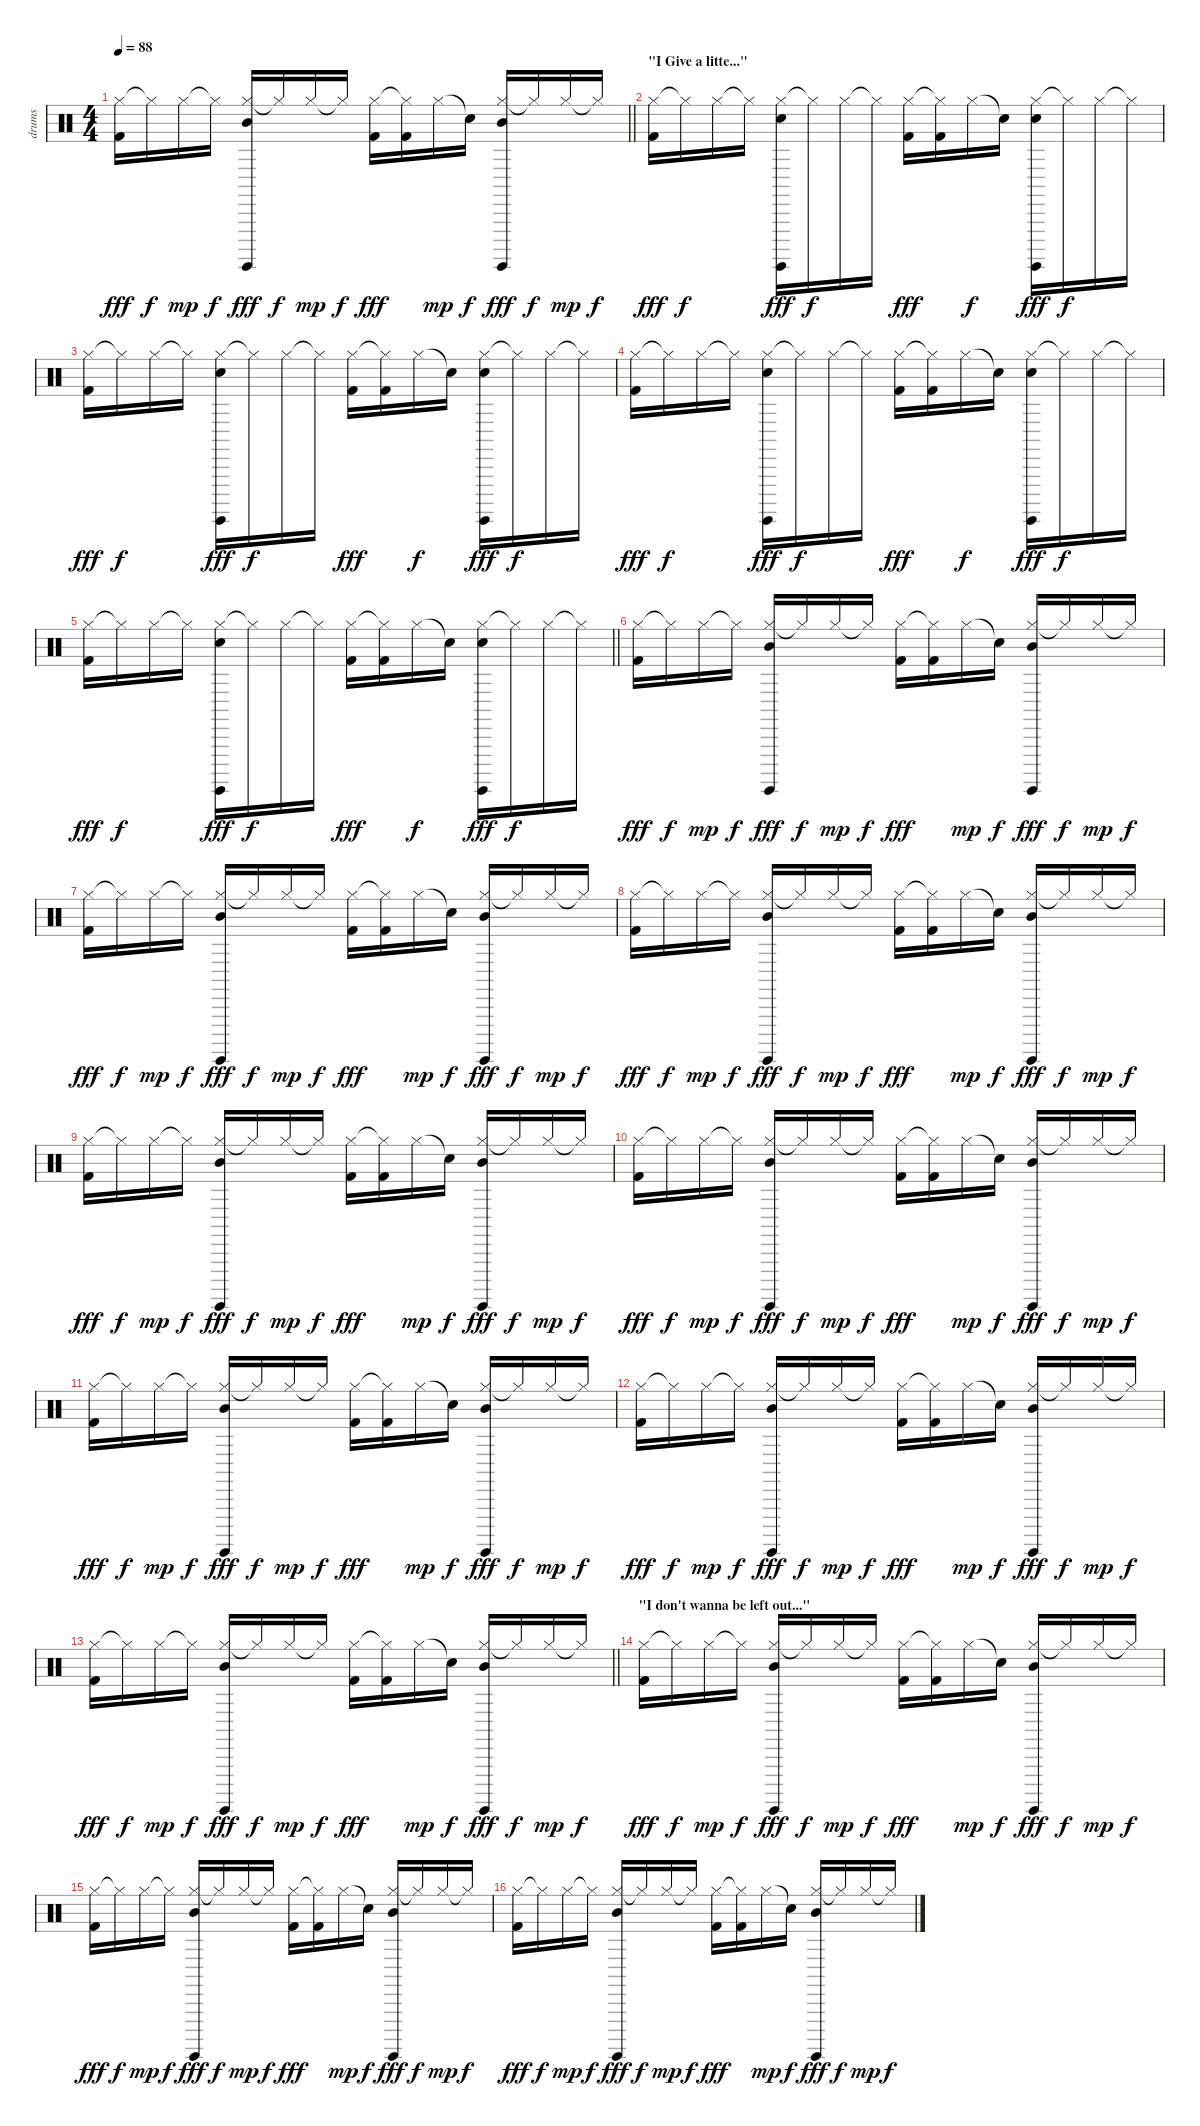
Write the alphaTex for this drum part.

\track ("drums" "drums") {instrument percussion}
\staff {score}
\articulation defaults
\ts (4 4)
\tempo 88
\clef neutral
\barLineRight lightlight
\ks c
("Hi-Hat (closed)" "Kick (hit) 2").16{dy fff} "Hi-Hat (closed)"{t}.16{dy f} "Hi-Hat (closed)".16{dy mp} "Hi-Hat (closed)"{t}.16{dy f} ("Hi-Hat (closed)" "Mid Tom (hit)" "Surdo (hit)").16{dy fff} "Hi-Hat (closed)"{t}.16{dy f} "Hi-Hat (closed)".16{dy mp} "Hi-Hat (closed)"{t}.16{dy f} ("Hi-Hat (closed)" "Kick (hit) 2").16{dy fff} ("Hi-Hat (closed)"{t} "Kick (hit) 2").16 "Hi-Hat (closed)".16{dy mp} "Snare (hit)"{t}.16{dy f} ("Hi-Hat (closed)" "Mid Tom (hit)" "Surdo (hit)").16{dy fff} "Hi-Hat (closed)"{t}.16{dy f} "Hi-Hat (closed)".16{dy mp} "Hi-Hat (closed)"{t}.16{dy f} |
\section ("" "\"I Give a litte...\"")
("Hi-Hat (closed)" "Kick (hit) 2").16{dy fff} "Hi-Hat (closed)"{t}.16{dy f} "Hi-Hat (closed)".16 "Hi-Hat (closed)"{t}.16 ("Hi-Hat (closed)" "Snare (hit) 2" "Surdo (hit)").16{dy fff} "Hi-Hat (closed)"{t}.16{dy f} "Hi-Hat (closed)".16 "Hi-Hat (closed)"{t}.16 ("Hi-Hat (closed)" "Kick (hit) 2").16{dy fff} ("Hi-Hat (closed)"{t} "Kick (hit) 2").16 "Hi-Hat (closed)".16{dy f} "Snare (hit)"{t}.16 ("Hi-Hat (closed)" "Snare (hit) 2" "Surdo (hit)").16{dy fff} "Hi-Hat (closed)"{t}.16{dy f} "Hi-Hat (closed)".16 "Hi-Hat (closed)"{t}.16 |
("Hi-Hat (closed)" "Kick (hit) 2").16{dy fff} "Hi-Hat (closed)"{t}.16{dy f} "Hi-Hat (closed)".16 "Hi-Hat (closed)"{t}.16 ("Hi-Hat (closed)" "Snare (hit) 2" "Surdo (hit)").16{dy fff} "Hi-Hat (closed)"{t}.16{dy f} "Hi-Hat (closed)".16 "Hi-Hat (closed)"{t}.16 ("Hi-Hat (closed)" "Kick (hit) 2").16{dy fff} ("Hi-Hat (closed)"{t} "Kick (hit) 2").16 "Hi-Hat (closed)".16{dy f} "Snare (hit)"{t}.16 ("Hi-Hat (closed)" "Snare (hit) 2" "Surdo (hit)").16{dy fff} "Hi-Hat (closed)"{t}.16{dy f} "Hi-Hat (closed)".16 "Hi-Hat (closed)"{t}.16 |
("Hi-Hat (closed)" "Kick (hit) 2").16{dy fff} "Hi-Hat (closed)"{t}.16{dy f} "Hi-Hat (closed)".16 "Hi-Hat (closed)"{t}.16 ("Hi-Hat (closed)" "Snare (hit) 2" "Surdo (hit)").16{dy fff} "Hi-Hat (closed)"{t}.16{dy f} "Hi-Hat (closed)".16 "Hi-Hat (closed)"{t}.16 ("Hi-Hat (closed)" "Kick (hit) 2").16{dy fff} ("Hi-Hat (closed)"{t} "Kick (hit) 2").16 "Hi-Hat (closed)".16{dy f} "Snare (hit)"{t}.16 ("Hi-Hat (closed)" "Snare (hit) 2" "Surdo (hit)").16{dy fff} "Hi-Hat (closed)"{t}.16{dy f} "Hi-Hat (closed)".16 "Hi-Hat (closed)"{t}.16 |
\barLineRight lightlight
("Hi-Hat (closed)" "Kick (hit) 2").16{dy fff} "Hi-Hat (closed)"{t}.16{dy f} "Hi-Hat (closed)".16 "Hi-Hat (closed)"{t}.16 ("Hi-Hat (closed)" "Snare (hit) 2" "Surdo (hit)").16{dy fff} "Hi-Hat (closed)"{t}.16{dy f} "Hi-Hat (closed)".16 "Hi-Hat (closed)"{t}.16 ("Hi-Hat (closed)" "Kick (hit) 2").16{dy fff} ("Hi-Hat (closed)"{t} "Kick (hit) 2").16 "Hi-Hat (closed)".16{dy f} "Snare (hit)"{t}.16 ("Hi-Hat (closed)" "Snare (hit) 2" "Surdo (hit)").16{dy fff} "Hi-Hat (closed)"{t}.16{dy f} "Hi-Hat (closed)".16 "Hi-Hat (closed)"{t}.16 |
("Hi-Hat (closed)" "Kick (hit) 2").16{dy fff} "Hi-Hat (closed)"{t}.16{dy f} "Hi-Hat (closed)".16{dy mp} "Hi-Hat (closed)"{t}.16{dy f} ("Hi-Hat (closed)" "Mid Tom (hit)" "Surdo (hit)").16{dy fff} "Hi-Hat (closed)"{t}.16{dy f} "Hi-Hat (closed)".16{dy mp} "Hi-Hat (closed)"{t}.16{dy f} ("Hi-Hat (closed)" "Kick (hit) 2").16{dy fff} ("Hi-Hat (closed)"{t} "Kick (hit) 2").16 "Hi-Hat (closed)".16{dy mp} "Snare (hit)"{t}.16{dy f} ("Hi-Hat (closed)" "Mid Tom (hit)" "Surdo (hit)").16{dy fff} "Hi-Hat (closed)"{t}.16{dy f} "Hi-Hat (closed)".16{dy mp} "Hi-Hat (closed)"{t}.16{dy f} |
("Hi-Hat (closed)" "Kick (hit) 2").16{dy fff} "Hi-Hat (closed)"{t}.16{dy f} "Hi-Hat (closed)".16{dy mp} "Hi-Hat (closed)"{t}.16{dy f} ("Hi-Hat (closed)" "Mid Tom (hit)" "Surdo (hit)").16{dy fff} "Hi-Hat (closed)"{t}.16{dy f} "Hi-Hat (closed)".16{dy mp} "Hi-Hat (closed)"{t}.16{dy f} ("Hi-Hat (closed)" "Kick (hit) 2").16{dy fff} ("Hi-Hat (closed)"{t} "Kick (hit) 2").16 "Hi-Hat (closed)".16{dy mp} "Snare (hit)"{t}.16{dy f} ("Hi-Hat (closed)" "Mid Tom (hit)" "Surdo (hit)").16{dy fff} "Hi-Hat (closed)"{t}.16{dy f} "Hi-Hat (closed)".16{dy mp} "Hi-Hat (closed)"{t}.16{dy f} |
("Hi-Hat (closed)" "Kick (hit) 2").16{dy fff} "Hi-Hat (closed)"{t}.16{dy f} "Hi-Hat (closed)".16{dy mp} "Hi-Hat (closed)"{t}.16{dy f} ("Hi-Hat (closed)" "Mid Tom (hit)" "Surdo (hit)").16{dy fff} "Hi-Hat (closed)"{t}.16{dy f} "Hi-Hat (closed)".16{dy mp} "Hi-Hat (closed)"{t}.16{dy f} ("Hi-Hat (closed)" "Kick (hit) 2").16{dy fff} ("Hi-Hat (closed)"{t} "Kick (hit) 2").16 "Hi-Hat (closed)".16{dy mp} "Snare (hit)"{t}.16{dy f} ("Hi-Hat (closed)" "Mid Tom (hit)" "Surdo (hit)").16{dy fff} "Hi-Hat (closed)"{t}.16{dy f} "Hi-Hat (closed)".16{dy mp} "Hi-Hat (closed)"{t}.16{dy f} |
("Hi-Hat (closed)" "Kick (hit) 2").16{dy fff} "Hi-Hat (closed)"{t}.16{dy f} "Hi-Hat (closed)".16{dy mp} "Hi-Hat (closed)"{t}.16{dy f} ("Hi-Hat (closed)" "Mid Tom (hit)" "Surdo (hit)").16{dy fff} "Hi-Hat (closed)"{t}.16{dy f} "Hi-Hat (closed)".16{dy mp} "Hi-Hat (closed)"{t}.16{dy f} ("Hi-Hat (closed)" "Kick (hit) 2").16{dy fff} ("Hi-Hat (closed)"{t} "Kick (hit) 2").16 "Hi-Hat (closed)".16{dy mp} "Snare (hit)"{t}.16{dy f} ("Hi-Hat (closed)" "Mid Tom (hit)" "Surdo (hit)").16{dy fff} "Hi-Hat (closed)"{t}.16{dy f} "Hi-Hat (closed)".16{dy mp} "Hi-Hat (closed)"{t}.16{dy f} |
("Hi-Hat (closed)" "Kick (hit) 2").16{dy fff} "Hi-Hat (closed)"{t}.16{dy f} "Hi-Hat (closed)".16{dy mp} "Hi-Hat (closed)"{t}.16{dy f} ("Hi-Hat (closed)" "Mid Tom (hit)" "Surdo (hit)").16{dy fff} "Hi-Hat (closed)"{t}.16{dy f} "Hi-Hat (closed)".16{dy mp} "Hi-Hat (closed)"{t}.16{dy f} ("Hi-Hat (closed)" "Kick (hit) 2").16{dy fff} ("Hi-Hat (closed)"{t} "Kick (hit) 2").16 "Hi-Hat (closed)".16{dy mp} "Snare (hit)"{t}.16{dy f} ("Hi-Hat (closed)" "Mid Tom (hit)" "Surdo (hit)").16{dy fff} "Hi-Hat (closed)"{t}.16{dy f} "Hi-Hat (closed)".16{dy mp} "Hi-Hat (closed)"{t}.16{dy f} |
("Hi-Hat (closed)" "Kick (hit) 2").16{dy fff} "Hi-Hat (closed)"{t}.16{dy f} "Hi-Hat (closed)".16{dy mp} "Hi-Hat (closed)"{t}.16{dy f} ("Hi-Hat (closed)" "Mid Tom (hit)" "Surdo (hit)").16{dy fff} "Hi-Hat (closed)"{t}.16{dy f} "Hi-Hat (closed)".16{dy mp} "Hi-Hat (closed)"{t}.16{dy f} ("Hi-Hat (closed)" "Kick (hit) 2").16{dy fff} ("Hi-Hat (closed)"{t} "Kick (hit) 2").16 "Hi-Hat (closed)".16{dy mp} "Snare (hit)"{t}.16{dy f} ("Hi-Hat (closed)" "Mid Tom (hit)" "Surdo (hit)").16{dy fff} "Hi-Hat (closed)"{t}.16{dy f} "Hi-Hat (closed)".16{dy mp} "Hi-Hat (closed)"{t}.16{dy f} |
("Hi-Hat (closed)" "Kick (hit) 2").16{dy fff} "Hi-Hat (closed)"{t}.16{dy f} "Hi-Hat (closed)".16{dy mp} "Hi-Hat (closed)"{t}.16{dy f} ("Hi-Hat (closed)" "Mid Tom (hit)" "Surdo (hit)").16{dy fff} "Hi-Hat (closed)"{t}.16{dy f} "Hi-Hat (closed)".16{dy mp} "Hi-Hat (closed)"{t}.16{dy f} ("Hi-Hat (closed)" "Kick (hit) 2").16{dy fff} ("Hi-Hat (closed)"{t} "Kick (hit) 2").16 "Hi-Hat (closed)".16{dy mp} "Snare (hit)"{t}.16{dy f} ("Hi-Hat (closed)" "Mid Tom (hit)" "Surdo (hit)").16{dy fff} "Hi-Hat (closed)"{t}.16{dy f} "Hi-Hat (closed)".16{dy mp} "Hi-Hat (closed)"{t}.16{dy f} |
\barLineRight lightlight
("Hi-Hat (closed)" "Kick (hit) 2").16{dy fff} "Hi-Hat (closed)"{t}.16{dy f} "Hi-Hat (closed)".16{dy mp} "Hi-Hat (closed)"{t}.16{dy f} ("Hi-Hat (closed)" "Mid Tom (hit)" "Surdo (hit)").16{dy fff} "Hi-Hat (closed)"{t}.16{dy f} "Hi-Hat (closed)".16{dy mp} "Hi-Hat (closed)"{t}.16{dy f} ("Hi-Hat (closed)" "Kick (hit) 2").16{dy fff} ("Hi-Hat (closed)"{t} "Kick (hit) 2").16 "Hi-Hat (closed)".16{dy mp} "Snare (hit)"{t}.16{dy f} ("Hi-Hat (closed)" "Mid Tom (hit)" "Surdo (hit)").16{dy fff} "Hi-Hat (closed)"{t}.16{dy f} "Hi-Hat (closed)".16{dy mp} "Hi-Hat (closed)"{t}.16{dy f} |
\section ("" "\"I don't wanna be left out...\"")
("Hi-Hat (closed)" "Kick (hit) 2").16{dy fff} "Hi-Hat (closed)"{t}.16{dy f} "Hi-Hat (closed)".16{dy mp} "Hi-Hat (closed)"{t}.16{dy f} ("Hi-Hat (closed)" "Mid Tom (hit)" "Surdo (hit)").16{dy fff} "Hi-Hat (closed)"{t}.16{dy f} "Hi-Hat (closed)".16{dy mp} "Hi-Hat (closed)"{t}.16{dy f} ("Hi-Hat (closed)" "Kick (hit) 2").16{dy fff} ("Hi-Hat (closed)"{t} "Kick (hit) 2").16 "Hi-Hat (closed)".16{dy mp} "Snare (hit)"{t}.16{dy f} ("Hi-Hat (closed)" "Mid Tom (hit)" "Surdo (hit)").16{dy fff} "Hi-Hat (closed)"{t}.16{dy f} "Hi-Hat (closed)".16{dy mp} "Hi-Hat (closed)"{t}.16{dy f} |
("Hi-Hat (closed)" "Kick (hit) 2").16{dy fff} "Hi-Hat (closed)"{t}.16{dy f} "Hi-Hat (closed)".16{dy mp} "Hi-Hat (closed)"{t}.16{dy f} ("Hi-Hat (closed)" "Mid Tom (hit)" "Surdo (hit)").16{dy fff} "Hi-Hat (closed)"{t}.16{dy f} "Hi-Hat (closed)".16{dy mp} "Hi-Hat (closed)"{t}.16{dy f} ("Hi-Hat (closed)" "Kick (hit) 2").16{dy fff} ("Hi-Hat (closed)"{t} "Kick (hit) 2").16 "Hi-Hat (closed)".16{dy mp} "Snare (hit)"{t}.16{dy f} ("Hi-Hat (closed)" "Mid Tom (hit)" "Surdo (hit)").16{dy fff} "Hi-Hat (closed)"{t}.16{dy f} "Hi-Hat (closed)".16{dy mp} "Hi-Hat (closed)"{t}.16{dy f} |
("Hi-Hat (closed)" "Kick (hit) 2").16{dy fff} "Hi-Hat (closed)"{t}.16{dy f} "Hi-Hat (closed)".16{dy mp} "Hi-Hat (closed)"{t}.16{dy f} ("Hi-Hat (closed)" "Mid Tom (hit)" "Surdo (hit)").16{dy fff} "Hi-Hat (closed)"{t}.16{dy f} "Hi-Hat (closed)".16{dy mp} "Hi-Hat (closed)"{t}.16{dy f} ("Hi-Hat (closed)" "Kick (hit) 2").16{dy fff} ("Hi-Hat (closed)"{t} "Kick (hit) 2").16 "Hi-Hat (closed)".16{dy mp} "Snare (hit)"{t}.16{dy f} ("Hi-Hat (closed)" "Mid Tom (hit)" "Surdo (hit)").16{dy fff} "Hi-Hat (closed)"{t}.16{dy f} "Hi-Hat (closed)".16{dy mp} "Hi-Hat (closed)"{t}.16{dy f}
